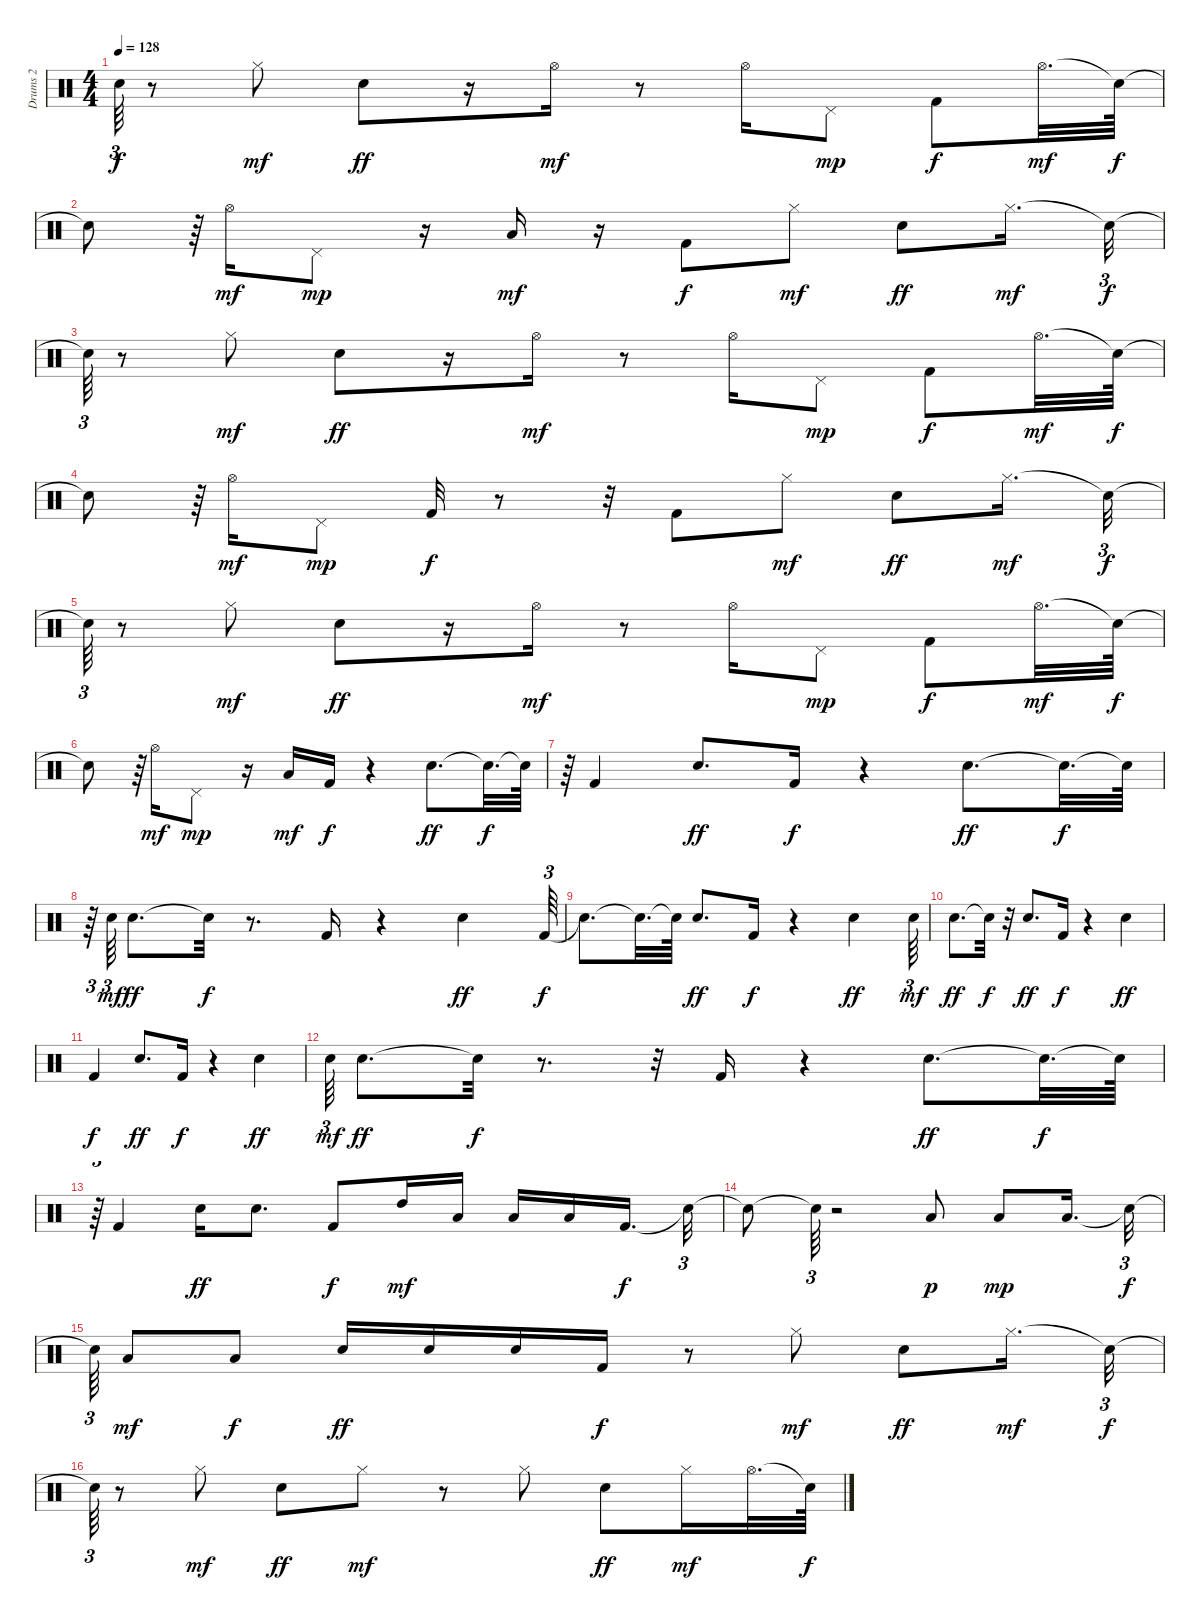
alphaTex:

\track ("Drums 2                             " "Drums 2   ") {instrument percussion}
\staff {score}
\articulation defaults
\ts (4 4)
\tempo 128
\clef neutral
\ks c "Snare (hit)"{t}.64{tu (3 2) dy f}
r.8 "Hi-Hat (closed)".8{dy mf} "Snare (hit) 2".8{dy ff} r.16 "Hi-Hat (open)".16{dy mf} r.8 "Hi-Hat (open)".16 "Pedal Hi-Hat (hit)".8{dy mp} "Kick (hit) 2".8{dy f} "Hi-Hat (open)".32{d dy mf} "Snare (hit)"{t}.64{dy f} |
"Snare (hit)"{t}.8 r.64{tu (3 2)} "Hi-Hat (open)".16{dy mf} "Pedal Hi-Hat (hit)".8{dy mp} r.16 "Low Tom (hit)".16{dy mf} r.16 "Kick (hit) 2".8{dy f} "Hi-Hat (closed)".8{dy mf} "Snare (hit) 2".8{dy ff} "Hi-Hat (closed)".16{d dy mf} "Snare (hit)"{t}.32{tu (3 2) dy f} |
"Snare (hit)"{t}.64{tu (3 2)} r.8 "Hi-Hat (closed)".8{dy mf} "Snare (hit) 2".8{dy ff} r.16 "Hi-Hat (open)".16{dy mf} r.8 "Hi-Hat (open)".16 "Pedal Hi-Hat (hit)".8{dy mp} "Kick (hit) 2".8{dy f} "Hi-Hat (open)".32{d dy mf} "Snare (hit)"{t}.64{dy f} |
"Snare (hit)"{t}.8 r.64{tu (3 2)} "Hi-Hat (open)".16{dy mf} "Pedal Hi-Hat (hit)".8{dy mp} "Kick (hit) 2".32{dy f} r.8 r.32 "Kick (hit) 2".8 "Hi-Hat (closed)".8{dy mf} "Snare (hit) 2".8{dy ff} "Hi-Hat (closed)".16{d dy mf} "Snare (hit)"{t}.32{tu (3 2) dy f} |
"Snare (hit)"{t}.64{tu (3 2)} r.8 "Hi-Hat (closed)".8{dy mf} "Snare (hit) 2".8{dy ff} r.16 "Hi-Hat (open)".16{dy mf} r.8 "Hi-Hat (open)".16 "Pedal Hi-Hat (hit)".8{dy mp} "Kick (hit) 2".8{dy f} "Hi-Hat (open)".32{d dy mf} "Snare (hit)"{t}.64{dy f} |
"Snare (hit)"{t}.8 r.64{tu (3 2)} "Hi-Hat (open)".16{dy mf} "Pedal Hi-Hat (hit)".8{dy mp} r.16 "Low Tom (hit)".16{dy mf} "Kick (hit) 2".16{dy f} r.4 "Snare (hit) 2".8{d dy ff} "Snare (hit)"{t}.32{d dy f} "Snare (hit)"{t}.64 |
r.64{tu (3 2)} "Kick (hit) 2".4 "Snare (hit) 2".8{d dy ff} "Kick (hit) 2".16{dy f} r.4 "Snare (hit) 2".8{d dy ff} "Snare (hit)"{t}.32{d dy f} "Snare (hit)"{t}.64 |
r.64{tu (3 2)} "Snare (hit) 2".64{tu (3 2) dy mf} "Snare (hit) 2".8{d dy ff} "Snare (hit)"{t}.32{dy f} r.8{d} "Kick (hit) 2".16 r.4 "Snare (hit) 2".4{dy ff} "Kick (hit) 2".64{tu (3 2) dy f} |
"Snare (hit)"{t}.8{d} "Snare (hit)"{t}.32{d} "Snare (hit)"{t}.64 "Snare (hit) 2".8{d dy ff} "Kick (hit) 2".16{dy f} r.4 "Snare (hit) 2".4{dy ff} "Snare (hit) 2".64{tu (3 2) dy mf} |
"Snare (hit) 2".8{d dy ff} "Snare (hit)"{t}.32{dy f} r.32 "Snare (hit) 2".8{d dy ff} "Kick (hit) 2".16{dy f} r.4 "Snare (hit) 2".4{dy ff} |
"Kick (hit) 2".4{dy f} "Snare (hit) 2".8{d dy ff} "Kick (hit) 2".16{dy f} r.4 "Snare (hit) 2".4{dy ff} |
"Snare (hit) 2".64{tu (3 2) dy mf} "Snare (hit) 2".8{d dy ff} "Snare (hit)"{t}.32{dy f} r.8{d} r.32 "Kick (hit) 2".16 r.4 "Snare (hit) 2".8{d dy ff} "Snare (hit)"{t}.32{d dy f} "Snare (hit)"{t}.64 |
r.64{tu (3 2)} "Kick (hit) 2".4 "Snare (hit) 2".16{dy ff} "Snare (hit) 2".8{d} "Kick (hit) 2".8{dy f} "High Tom (hit)".16{dy mf} "Low Floor Tom (hit)".16 "Low Tom (hit)".16 "Low Floor Tom (hit)".16 "Kick (hit) 2".16{d dy f} "Snare (hit)"{t}.32{tu (3 2)} |
"Snare (hit)"{t}.8 "Snare (hit)"{t}.64{tu (3 2)} r.2 "Low Floor Tom (hit)".8{dy p} "Low Floor Tom (hit)".8{dy mp} "Low Floor Tom (hit)".16{d} "Snare (hit)"{t}.32{tu (3 2) dy f} |
"Snare (hit)"{t}.64{tu (3 2)} "Low Floor Tom (hit)".8{dy mf} "Low Floor Tom (hit)".8{dy f} "Snare (hit) 2".16{dy ff} "Snare (hit) 2".16 "Snare (hit) 2".16 "Kick (hit) 2".16{dy f} r.8 "Hi-Hat (closed)".8{dy mf} "Snare (hit) 2".8{dy ff} "Hi-Hat (closed)".16{d dy mf} "Snare (hit)"{t}.32{tu (3 2) dy f} |
"Snare (hit)"{t}.64{tu (3 2)} r.8 "Hi-Hat (closed)".8{dy mf} "Snare (hit) 2".8{dy ff} "Hi-Hat (closed)".8{dy mf} r.8 "Hi-Hat (closed)".8 "Snare (hit) 2".8{dy ff} "Hi-Hat (closed)".16{dy mf} "Hi-Hat (open)".32{d} "Snare (hit)"{t}.64{dy f}
